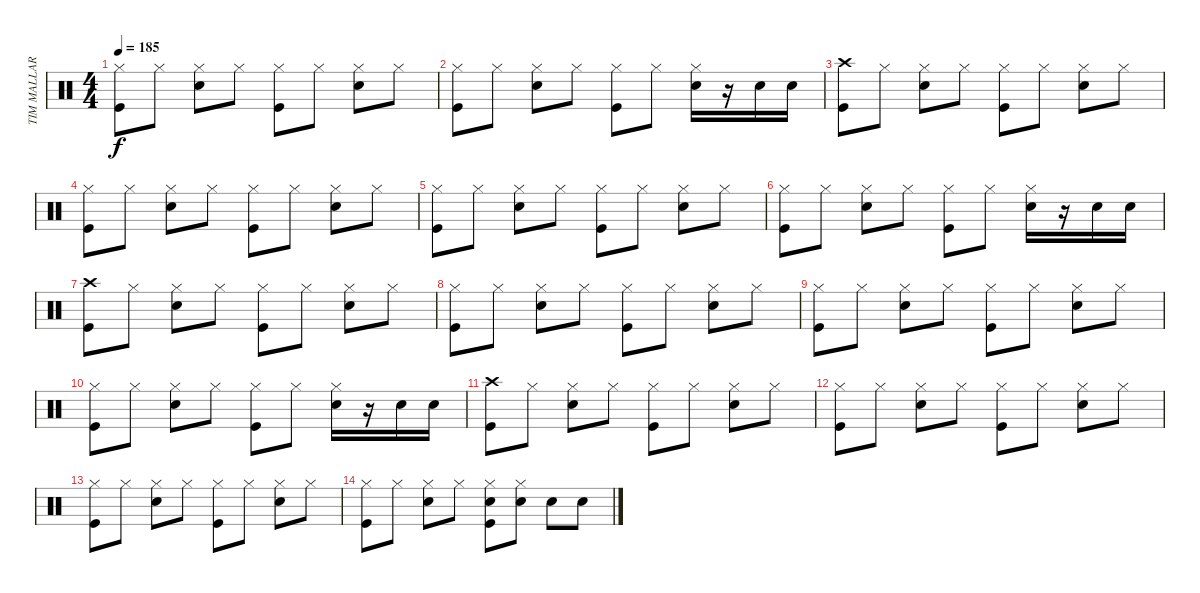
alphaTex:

\track ("TIM MALLARE - drums" "TIM MALLAR") {instrument percussion}
\staff {score}
\articulation defaults
\ts (4 4)
\tempo 185
\clef neutral
\ks c
("Hi-Hat (closed)" "Kick (hit)").8{dy f} "Hi-Hat (closed)".8 ("Hi-Hat (closed)" "Electric Snare (hit)").8 "Hi-Hat (closed)".8 ("Hi-Hat (closed)" "Kick (hit)").8 "Hi-Hat (closed)".8 ("Hi-Hat (closed)" "Electric Snare (hit)").8 "Hi-Hat (closed)".8 |
("Hi-Hat (closed)" "Kick (hit)").8 "Hi-Hat (closed)".8 ("Hi-Hat (closed)" "Electric Snare (hit)").8 "Hi-Hat (closed)".8 ("Hi-Hat (closed)" "Kick (hit)").8 "Hi-Hat (closed)".8 ("Hi-Hat (closed)" "Electric Snare (hit)").16 r.16 "Electric Snare (hit)".16 "Electric Snare (hit)".16 |
("Crash high (hit)" "Kick (hit)").8 "Hi-Hat (closed)".8 ("Hi-Hat (closed)" "Electric Snare (hit)").8 "Hi-Hat (closed)".8 ("Hi-Hat (closed)" "Kick (hit)").8 "Hi-Hat (closed)".8 ("Hi-Hat (closed)" "Electric Snare (hit)").8 "Hi-Hat (closed)".8 |
("Hi-Hat (closed)" "Kick (hit)").8 "Hi-Hat (closed)".8 ("Hi-Hat (closed)" "Electric Snare (hit)").8 "Hi-Hat (closed)".8 ("Hi-Hat (closed)" "Kick (hit)").8 "Hi-Hat (closed)".8 ("Hi-Hat (closed)" "Electric Snare (hit)").8 "Hi-Hat (closed)".8 |
("Hi-Hat (closed)" "Kick (hit)").8 "Hi-Hat (closed)".8 ("Hi-Hat (closed)" "Electric Snare (hit)").8 "Hi-Hat (closed)".8 ("Hi-Hat (closed)" "Kick (hit)").8 "Hi-Hat (closed)".8 ("Hi-Hat (closed)" "Electric Snare (hit)").8 "Hi-Hat (closed)".8 |
("Hi-Hat (closed)" "Kick (hit)").8 "Hi-Hat (closed)".8 ("Hi-Hat (closed)" "Electric Snare (hit)").8 "Hi-Hat (closed)".8 ("Hi-Hat (closed)" "Kick (hit)").8 "Hi-Hat (closed)".8 ("Hi-Hat (closed)" "Electric Snare (hit)").16 r.16 "Electric Snare (hit)".16 "Electric Snare (hit)".16 |
("Crash high (hit)" "Kick (hit)").8 "Hi-Hat (closed)".8 ("Hi-Hat (closed)" "Electric Snare (hit)").8 "Hi-Hat (closed)".8 ("Hi-Hat (closed)" "Kick (hit)").8 "Hi-Hat (closed)".8 ("Hi-Hat (closed)" "Electric Snare (hit)").8 "Hi-Hat (closed)".8 |
("Hi-Hat (closed)" "Kick (hit)").8 "Hi-Hat (closed)".8 ("Hi-Hat (closed)" "Electric Snare (hit)").8 "Hi-Hat (closed)".8 ("Hi-Hat (closed)" "Kick (hit)").8 "Hi-Hat (closed)".8 ("Hi-Hat (closed)" "Electric Snare (hit)").8 "Hi-Hat (closed)".8 |
("Hi-Hat (closed)" "Kick (hit)").8 "Hi-Hat (closed)".8 ("Hi-Hat (closed)" "Electric Snare (hit)").8 "Hi-Hat (closed)".8 ("Hi-Hat (closed)" "Kick (hit)").8 "Hi-Hat (closed)".8 ("Hi-Hat (closed)" "Electric Snare (hit)").8 "Hi-Hat (closed)".8 |
("Hi-Hat (closed)" "Kick (hit)").8 "Hi-Hat (closed)".8 ("Hi-Hat (closed)" "Electric Snare (hit)").8 "Hi-Hat (closed)".8 ("Hi-Hat (closed)" "Kick (hit)").8 "Hi-Hat (closed)".8 ("Hi-Hat (closed)" "Electric Snare (hit)").16 r.16 "Electric Snare (hit)".16 "Electric Snare (hit)".16 |
("Crash high (hit)" "Kick (hit)").8 "Hi-Hat (closed)".8 ("Hi-Hat (closed)" "Electric Snare (hit)").8 "Hi-Hat (closed)".8 ("Hi-Hat (closed)" "Kick (hit)").8 "Hi-Hat (closed)".8 ("Hi-Hat (closed)" "Electric Snare (hit)").8 "Hi-Hat (closed)".8 |
("Hi-Hat (closed)" "Kick (hit)").8 "Hi-Hat (closed)".8 ("Hi-Hat (closed)" "Electric Snare (hit)").8 "Hi-Hat (closed)".8 ("Hi-Hat (closed)" "Kick (hit)").8 "Hi-Hat (closed)".8 ("Hi-Hat (closed)" "Electric Snare (hit)").8 "Hi-Hat (closed)".8 |
("Hi-Hat (closed)" "Kick (hit)").8 "Hi-Hat (closed)".8 ("Hi-Hat (closed)" "Electric Snare (hit)").8 "Hi-Hat (closed)".8 ("Hi-Hat (closed)" "Kick (hit)").8 "Hi-Hat (closed)".8 ("Hi-Hat (closed)" "Electric Snare (hit)").8 "Hi-Hat (closed)".8 |
("Hi-Hat (closed)" "Kick (hit)").8 "Hi-Hat (closed)".8 ("Hi-Hat (closed)" "Electric Snare (hit)").8 "Hi-Hat (closed)".8 ("Hi-Hat (closed)" "Electric Snare (hit)" "Kick (hit)").8 ("Hi-Hat (closed)" "Electric Snare (hit)").8 "Electric Snare (hit)".8 "Electric Snare (hit)".8
